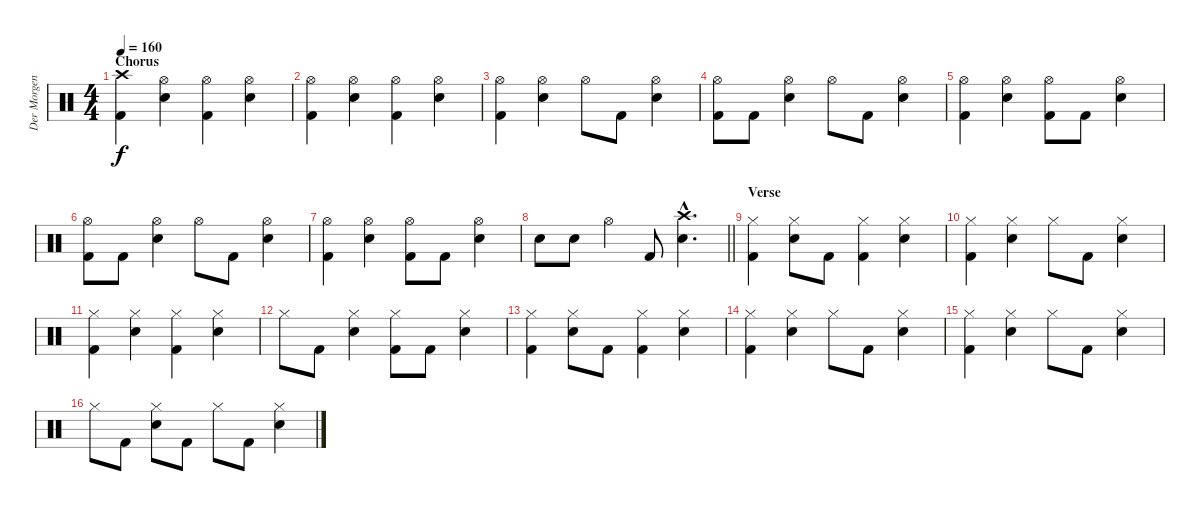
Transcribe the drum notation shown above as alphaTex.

\track ("Der Morgenstern" "Der Morgen") {instrument percussion}
\staff {score}
\articulation defaults
\ts (4 4)
\section ("" "Chorus")
\tempo 160
\clef neutral
\ks c
("Crash high (hit)" "Kick (hit) 2").4{dy f} ("Hi-Hat (open)" "Electric Snare (hit)").4 ("Hi-Hat (open)" "Kick (hit) 2").4 ("Hi-Hat (open)" "Electric Snare (hit)").4 |
("Hi-Hat (open)" "Kick (hit) 2").4 ("Hi-Hat (open)" "Electric Snare (hit)").4 ("Hi-Hat (open)" "Kick (hit) 2").4 ("Hi-Hat (open)" "Electric Snare (hit)").4 |
("Hi-Hat (open)" "Kick (hit) 2").4 ("Hi-Hat (open)" "Electric Snare (hit)").4 "Hi-Hat (open)".8 "Kick (hit) 2".8 ("Hi-Hat (open)" "Electric Snare (hit)").4 |
("Hi-Hat (open)" "Kick (hit) 2").8 "Kick (hit) 2".8 ("Hi-Hat (open)" "Electric Snare (hit)").4 "Hi-Hat (open)".8 "Kick (hit) 2".8 ("Hi-Hat (open)" "Electric Snare (hit)").4 |
("Hi-Hat (open)" "Kick (hit) 2").4 ("Hi-Hat (open)" "Electric Snare (hit)").4 ("Hi-Hat (open)" "Kick (hit) 2").8 "Kick (hit) 2".8 ("Hi-Hat (open)" "Electric Snare (hit)").4 |
("Hi-Hat (open)" "Kick (hit) 2").8 "Kick (hit) 2".8 ("Hi-Hat (open)" "Electric Snare (hit)").4 "Hi-Hat (open)".8 "Kick (hit) 2".8 ("Hi-Hat (open)" "Electric Snare (hit)").4 |
("Hi-Hat (open)" "Kick (hit) 2").4 ("Hi-Hat (open)" "Electric Snare (hit)").4 ("Hi-Hat (open)" "Kick (hit) 2").8 "Kick (hit) 2".8 ("Hi-Hat (open)" "Electric Snare (hit)").4 |
\barLineRight lightlight "Electric Snare (hit)".8 "Electric Snare (hit)".8 "Hi-Hat (open)".4 "Kick (hit) 2".8
("Crash high (hit)"{hac} "Electric Snare (hit)"{hac}).4{d} |
\section ("" "Verse")
("Hi-Hat (closed)" "Kick (hit) 2").4 ("Hi-Hat (closed)" "Electric Snare (hit)").8 "Kick (hit) 2".8 ("Hi-Hat (closed)" "Kick (hit) 2").4 ("Hi-Hat (closed)" "Electric Snare (hit)").4 |
("Hi-Hat (closed)" "Kick (hit) 2").4 ("Hi-Hat (closed)" "Electric Snare (hit)").4 "Hi-Hat (closed)".8 "Kick (hit) 2".8 ("Hi-Hat (closed)" "Electric Snare (hit)").4 |
("Hi-Hat (closed)" "Kick (hit) 2").4 ("Hi-Hat (closed)" "Electric Snare (hit)").4 ("Hi-Hat (closed)" "Kick (hit) 2").4 ("Hi-Hat (closed)" "Electric Snare (hit)").4 |
"Hi-Hat (closed)".8 "Kick (hit) 2".8 ("Hi-Hat (closed)" "Electric Snare (hit)").4 ("Hi-Hat (closed)" "Kick (hit) 2").8 "Kick (hit) 2".8 ("Hi-Hat (closed)" "Electric Snare (hit)").4 |
("Hi-Hat (closed)" "Kick (hit) 2").4 ("Hi-Hat (closed)" "Electric Snare (hit)").8 "Kick (hit) 2".8 ("Hi-Hat (closed)" "Kick (hit) 2").4 ("Hi-Hat (closed)" "Electric Snare (hit)").4 |
("Hi-Hat (closed)" "Kick (hit) 2").4 ("Hi-Hat (closed)" "Electric Snare (hit)").4 "Hi-Hat (closed)".8 "Kick (hit) 2".8 ("Hi-Hat (closed)" "Electric Snare (hit)").4 |
("Hi-Hat (closed)" "Kick (hit) 2").4 ("Hi-Hat (closed)" "Electric Snare (hit)").4 "Hi-Hat (closed)".8 "Kick (hit) 2".8 ("Hi-Hat (closed)" "Electric Snare (hit)").4 |
"Hi-Hat (closed)".8 "Kick (hit) 2".8 ("Hi-Hat (closed)" "Electric Snare (hit)").8 "Kick (hit) 2".8 "Hi-Hat (closed)".8 "Kick (hit) 2".8 ("Hi-Hat (closed)" "Electric Snare (hit)").4
